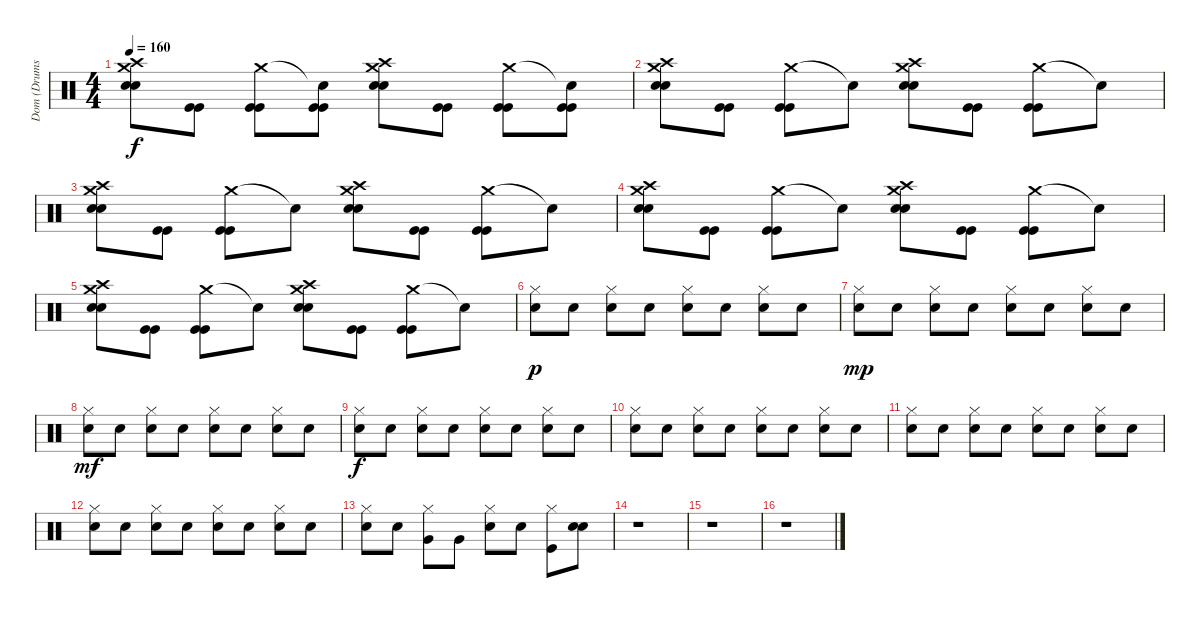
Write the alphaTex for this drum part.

\track ("Dom (Drums)" "Dom (Drums") {instrument percussion}
\staff {score}
\articulation defaults
\ts (4 4)
\tempo 160
\clef neutral
\ks c
("Crash medium (hit)" "Crash high (hit)" "Snare (hit) 2" "Snare (hit) 2").8{dy f} ("Kick (hit)" "Kick (hit)").8 ("Crash medium (hit)" "Kick (hit)" "Kick (hit)").8 ("Snare (hit)"{t} "Kick (hit)" "Kick (hit)").8 ("Crash medium (hit)" "Crash high (hit)" "Snare (hit) 2" "Snare (hit) 2").8 ("Kick (hit)" "Kick (hit)").8 ("Crash medium (hit)" "Kick (hit)" "Kick (hit)").8 ("Snare (hit)"{t} "Kick (hit)" "Kick (hit)").8 |
("Crash medium (hit)" "Crash high (hit)" "Snare (hit) 2" "Snare (hit) 2").8 ("Kick (hit)" "Kick (hit)").8 ("Crash medium (hit)" "Kick (hit)" "Kick (hit)").8 "Snare (hit)"{t}.8 ("Crash medium (hit)" "Crash high (hit)" "Snare (hit) 2" "Snare (hit) 2").8 ("Kick (hit)" "Kick (hit)").8 ("Crash medium (hit)" "Kick (hit)" "Kick (hit)").8 "Snare (hit)"{t}.8 |
("Crash medium (hit)" "Crash high (hit)" "Snare (hit) 2" "Snare (hit) 2").8 ("Kick (hit)" "Kick (hit)").8 ("Crash medium (hit)" "Kick (hit)" "Kick (hit)").8 "Snare (hit)"{t}.8 ("Crash medium (hit)" "Crash high (hit)" "Snare (hit) 2" "Snare (hit) 2").8 ("Kick (hit)" "Kick (hit)").8 ("Crash medium (hit)" "Kick (hit)" "Kick (hit)").8 "Snare (hit)"{t}.8 |
("Crash medium (hit)" "Crash high (hit)" "Snare (hit) 2" "Snare (hit) 2").8 ("Kick (hit)" "Kick (hit)").8 ("Crash medium (hit)" "Kick (hit)" "Kick (hit)").8 "Snare (hit)"{t}.8 ("Crash medium (hit)" "Crash high (hit)" "Snare (hit) 2" "Snare (hit) 2").8 ("Kick (hit)" "Kick (hit)").8 ("Crash medium (hit)" "Kick (hit)" "Kick (hit)").8 "Snare (hit)"{t}.8 |
("Crash medium (hit)" "Crash high (hit)" "Snare (hit) 2" "Snare (hit) 2").8 ("Kick (hit)" "Kick (hit)").8 ("Crash medium (hit)" "Kick (hit)" "Kick (hit)").8 "Snare (hit)"{t}.8 ("Crash medium (hit)" "Crash high (hit)" "Snare (hit) 2" "Snare (hit) 2").8 ("Kick (hit)" "Kick (hit)").8 ("Crash medium (hit)" "Kick (hit)" "Kick (hit)").8 "Snare (hit)"{t}.8 |
("Hi-Hat (closed)" "Snare (hit) 2").8{dy p} "Snare (hit) 2".8 ("Hi-Hat (closed)" "Snare (hit) 2").8 "Snare (hit) 2".8 ("Hi-Hat (closed)" "Snare (hit) 2").8 "Snare (hit) 2".8 ("Hi-Hat (closed)" "Snare (hit) 2").8 "Snare (hit) 2".8 |
("Hi-Hat (closed)" "Snare (hit) 2").8{dy mp} "Snare (hit) 2".8 ("Hi-Hat (closed)" "Snare (hit) 2").8 "Snare (hit) 2".8 ("Hi-Hat (closed)" "Snare (hit) 2").8 "Snare (hit) 2".8 ("Hi-Hat (closed)" "Snare (hit) 2").8 "Snare (hit) 2".8 |
("Hi-Hat (closed)" "Snare (hit) 2").8{dy mf} "Snare (hit) 2".8 ("Hi-Hat (closed)" "Snare (hit) 2").8 "Snare (hit) 2".8 ("Hi-Hat (closed)" "Snare (hit) 2").8 "Snare (hit) 2".8 ("Hi-Hat (closed)" "Snare (hit) 2").8 "Snare (hit) 2".8 |
("Hi-Hat (closed)" "Snare (hit) 2").8{dy f} "Snare (hit) 2".8 ("Hi-Hat (closed)" "Snare (hit) 2").8 "Snare (hit) 2".8 ("Hi-Hat (closed)" "Snare (hit) 2").8 "Snare (hit) 2".8 ("Hi-Hat (closed)" "Snare (hit) 2").8 "Snare (hit) 2".8 |
("Hi-Hat (closed)" "Snare (hit) 2").8 "Snare (hit) 2".8 ("Hi-Hat (closed)" "Snare (hit) 2").8 "Snare (hit) 2".8 ("Hi-Hat (closed)" "Snare (hit) 2").8 "Snare (hit) 2".8 ("Hi-Hat (closed)" "Snare (hit) 2").8 "Snare (hit) 2".8 |
("Hi-Hat (closed)" "Snare (hit) 2").8 "Snare (hit) 2".8 ("Hi-Hat (closed)" "Snare (hit) 2").8 "Snare (hit) 2".8 ("Hi-Hat (closed)" "Snare (hit) 2").8 "Snare (hit) 2".8 ("Hi-Hat (closed)" "Snare (hit) 2").8 "Snare (hit) 2".8 |
("Hi-Hat (closed)" "Snare (hit) 2").8 "Snare (hit) 2".8 ("Hi-Hat (closed)" "Snare (hit) 2").8 "Snare (hit) 2".8 ("Hi-Hat (closed)" "Snare (hit) 2").8 "Snare (hit) 2".8 ("Hi-Hat (closed)" "Snare (hit) 2").8 "Snare (hit) 2".8 |
("Hi-Hat (closed)" "Snare (hit) 2").8 "Snare (hit) 2".8 ("Hi-Hat (closed)" "Very Low Tom (hit)").8 "Very Low Tom (hit)".8 ("Hi-Hat (closed)" "Snare (hit) 2").8 "Snare (hit) 2".8 ("Hi-Hat (closed)" "Kick (hit)").8 ("Snare (hit) 2" "Snare (hit) 2").8 |
r.1 |
r.1 |
r.1
